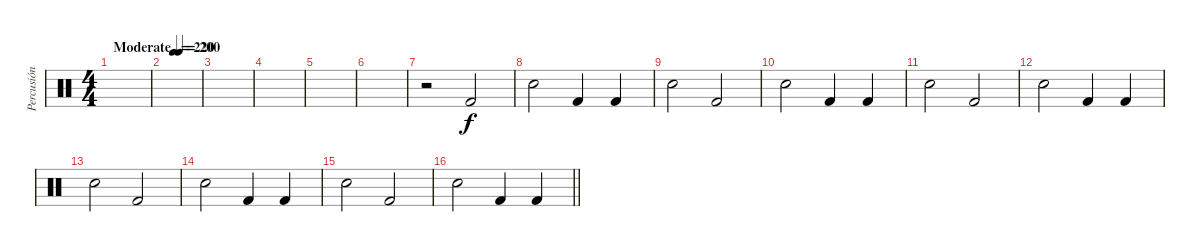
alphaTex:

\track ("Percusión" "Percusión") {instrument percussion}
\staff {score}
\articulation defaults
\ts (4 4)
\tempo (200 "Moderate")
\tempo 210
\tempo (200 "Moderate")
\clef neutral
\ks c
|
\tempo (220 0.25)
|
|
|
|
|
r.2 "Kick (hit) 2".2 |
"Electric Snare (hit)".2 "Kick (hit) 2".4 "Kick (hit) 2".4 |
"Electric Snare (hit)".2 "Kick (hit) 2".2 |
"Electric Snare (hit)".2 "Kick (hit) 2".4 "Kick (hit) 2".4 |
"Electric Snare (hit)".2 "Kick (hit) 2".2 |
"Electric Snare (hit)".2 "Kick (hit) 2".4 "Kick (hit) 2".4 |
"Electric Snare (hit)".2 "Kick (hit) 2".2 |
"Electric Snare (hit)".2 "Kick (hit) 2".4 "Kick (hit) 2".4 |
"Electric Snare (hit)".2 "Kick (hit) 2".2 |
\barLineRight lightlight "Electric Snare (hit)".2 "Kick (hit) 2".4 "Kick (hit) 2".4
